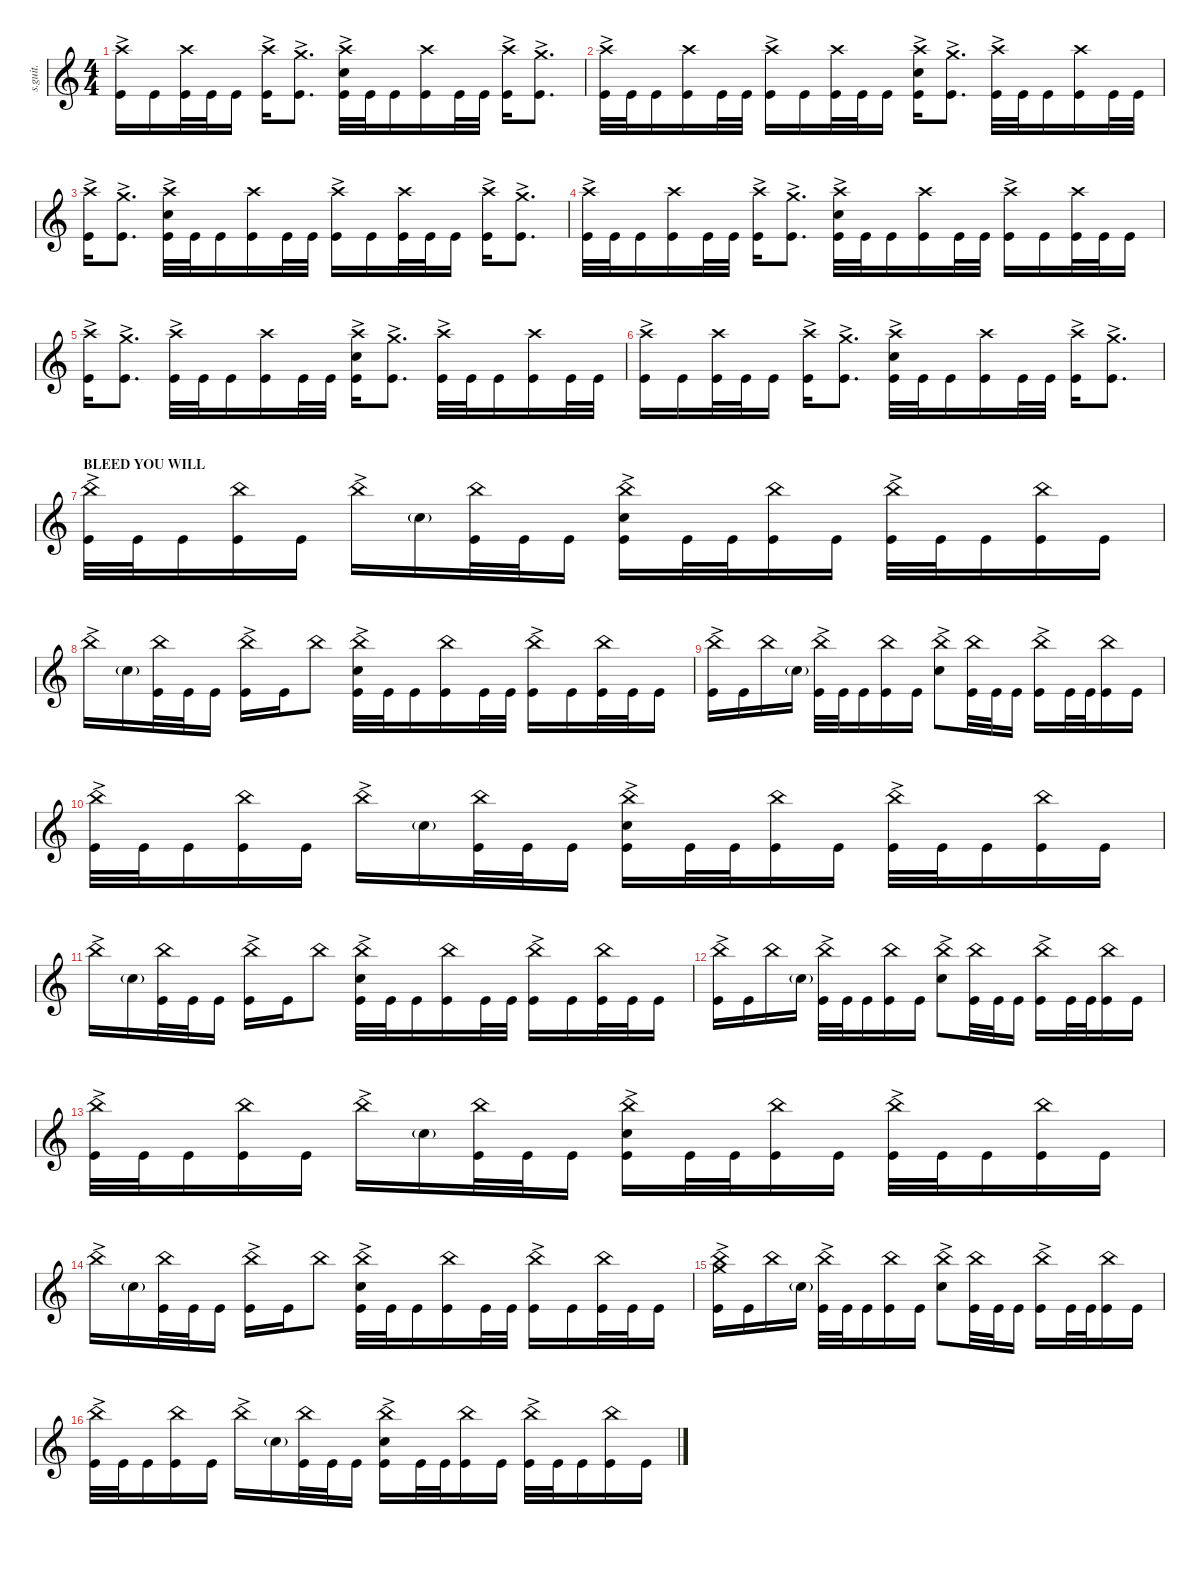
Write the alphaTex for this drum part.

\defaultSystemsLayout 4
\hideDynamics
\bracketExtendMode nobrackets
\track ("Tomas Haake (Drums)" "s.guit.") {instrument percussion}
\staff {score}
\articulation defaults
\ts (4 4)
\tempo (115 hide)
\clef g2
\ks c
("Crash high (hit)"{ac} "Kick (hit)").16{lyrics (0 "") lyrics (1 "") lyrics (2 "") lyrics (3 "") lyrics (4 "") dy f} "Kick (hit)".16{lyrics (0 "") lyrics (1 "") lyrics (2 "") lyrics (3 "") lyrics (4 "")} ("Crash high (hit)" "Kick (hit)").32{lyrics (0 "") lyrics (1 "") lyrics (2 "") lyrics (3 "") lyrics (4 "") dy mp} "Kick (hit)".32{lyrics (0 "") lyrics (1 "") lyrics (2 "") lyrics (3 "") lyrics (4 "") dy mf} "Kick (hit)".16{lyrics (0 "") lyrics (1 "") lyrics (2 "") lyrics (3 "") lyrics (4 "") dy f} ("Crash high (hit)"{ac} "Kick (hit)").16{lyrics (0 "") lyrics (1 "") lyrics (2 "") lyrics (3 "") lyrics (4 "")} ("Crash medium (hit)"{ac} "Kick (hit)").8{d lyrics (0 "") lyrics (1 "") lyrics (2 "") lyrics (3 "") lyrics (4 "")} ("Crash high (hit)"{ac} "Snare (hit) 2" "Kick (hit)").32{lyrics (0 "") lyrics (1 "") lyrics (2 "") lyrics (3 "") lyrics (4 "")} "Kick (hit)".32{lyrics (0 "") lyrics (1 "") lyrics (2 "") lyrics (3 "") lyrics (4 "") dy mf} "Kick (hit)".16{lyrics (0 "") lyrics (1 "") lyrics (2 "") lyrics (3 "") lyrics (4 "") dy f} ("Crash high (hit)" "Kick (hit)").16{lyrics (0 "") lyrics (1 "") lyrics (2 "") lyrics (3 "") lyrics (4 "") dy mp} "Kick (hit)".32{lyrics (0 "") lyrics (1 "") lyrics (2 "") lyrics (3 "") lyrics (4 "") dy f} "Kick (hit)".32{lyrics (0 "") lyrics (1 "") lyrics (2 "") lyrics (3 "") lyrics (4 "") dy mf} ("Crash high (hit)"{ac} "Kick (hit)").16{lyrics (0 "") lyrics (1 "") lyrics (2 "") lyrics (3 "") lyrics (4 "") dy f} ("Crash medium (hit)"{ac} "Kick (hit)").8{d lyrics (0 "") lyrics (1 "") lyrics (2 "") lyrics (3 "") lyrics (4 "")} |
("Crash high (hit)"{ac} "Kick (hit)").32{lyrics (0 "") lyrics (1 "") lyrics (2 "") lyrics (3 "") lyrics (4 "")} "Kick (hit)".32{lyrics (0 "") lyrics (1 "") lyrics (2 "") lyrics (3 "") lyrics (4 "") dy mf} "Kick (hit)".16{lyrics (0 "") lyrics (1 "") lyrics (2 "") lyrics (3 "") lyrics (4 "") dy f} ("Crash high (hit)" "Kick (hit)").16{lyrics (0 "") lyrics (1 "") lyrics (2 "") lyrics (3 "") lyrics (4 "") dy mp} "Kick (hit)".32{lyrics (0 "") lyrics (1 "") lyrics (2 "") lyrics (3 "") lyrics (4 "") dy f} "Kick (hit)".32{lyrics (0 "") lyrics (1 "") lyrics (2 "") lyrics (3 "") lyrics (4 "") dy mf} ("Crash high (hit)"{ac} "Kick (hit)").16{lyrics (0 "") lyrics (1 "") lyrics (2 "") lyrics (3 "") lyrics (4 "") dy f} "Kick (hit)".16{lyrics (0 "") lyrics (1 "") lyrics (2 "") lyrics (3 "") lyrics (4 "")} ("Crash high (hit)" "Kick (hit)").32{lyrics (0 "") lyrics (1 "") lyrics (2 "") lyrics (3 "") lyrics (4 "") dy mp} "Kick (hit)".32{lyrics (0 "") lyrics (1 "") lyrics (2 "") lyrics (3 "") lyrics (4 "") dy mf} "Kick (hit)".16{lyrics (0 "") lyrics (1 "") lyrics (2 "") lyrics (3 "") lyrics (4 "") dy f} ("Crash high (hit)"{ac} "Snare (hit) 2" "Kick (hit)").16{lyrics (0 "") lyrics (1 "") lyrics (2 "") lyrics (3 "") lyrics (4 "")} ("Crash medium (hit)"{ac} "Kick (hit)").8{d lyrics (0 "") lyrics (1 "") lyrics (2 "") lyrics (3 "") lyrics (4 "")} ("Crash high (hit)"{ac} "Kick (hit)").32{lyrics (0 "") lyrics (1 "") lyrics (2 "") lyrics (3 "") lyrics (4 "")} "Kick (hit)".32{lyrics (0 "") lyrics (1 "") lyrics (2 "") lyrics (3 "") lyrics (4 "") dy mf} "Kick (hit)".16{lyrics (0 "") lyrics (1 "") lyrics (2 "") lyrics (3 "") lyrics (4 "") dy f} ("Crash high (hit)" "Kick (hit)").16{lyrics (0 "") lyrics (1 "") lyrics (2 "") lyrics (3 "") lyrics (4 "") dy mp} "Kick (hit)".32{lyrics (0 "") lyrics (1 "") lyrics (2 "") lyrics (3 "") lyrics (4 "") dy f} "Kick (hit)".32{lyrics (0 "") lyrics (1 "") lyrics (2 "") lyrics (3 "") lyrics (4 "") dy mf} |
("Crash high (hit)"{ac} "Kick (hit)").16{lyrics (0 "") lyrics (1 "") lyrics (2 "") lyrics (3 "") lyrics (4 "") dy f} ("Crash medium (hit)"{ac} "Kick (hit)").8{d lyrics (0 "") lyrics (1 "") lyrics (2 "") lyrics (3 "") lyrics (4 "")} ("Crash high (hit)"{ac} "Snare (hit) 2" "Kick (hit)").32{lyrics (0 "") lyrics (1 "") lyrics (2 "") lyrics (3 "") lyrics (4 "")} "Kick (hit)".32{lyrics (0 "") lyrics (1 "") lyrics (2 "") lyrics (3 "") lyrics (4 "") dy mf} "Kick (hit)".16{lyrics (0 "") lyrics (1 "") lyrics (2 "") lyrics (3 "") lyrics (4 "") dy f} ("Crash high (hit)" "Kick (hit)").16{lyrics (0 "") lyrics (1 "") lyrics (2 "") lyrics (3 "") lyrics (4 "") dy mp} "Kick (hit)".32{lyrics (0 "") lyrics (1 "") lyrics (2 "") lyrics (3 "") lyrics (4 "") dy f} "Kick (hit)".32{lyrics (0 "") lyrics (1 "") lyrics (2 "") lyrics (3 "") lyrics (4 "") dy mf} ("Crash high (hit)"{ac} "Kick (hit)").16{lyrics (0 "") lyrics (1 "") lyrics (2 "") lyrics (3 "") lyrics (4 "") dy f} "Kick (hit)".16{lyrics (0 "") lyrics (1 "") lyrics (2 "") lyrics (3 "") lyrics (4 "")} ("Crash high (hit)" "Kick (hit)").32{lyrics (0 "") lyrics (1 "") lyrics (2 "") lyrics (3 "") lyrics (4 "") dy mp} "Kick (hit)".32{lyrics (0 "") lyrics (1 "") lyrics (2 "") lyrics (3 "") lyrics (4 "") dy mf} "Kick (hit)".16{lyrics (0 "") lyrics (1 "") lyrics (2 "") lyrics (3 "") lyrics (4 "") dy f} ("Crash high (hit)"{ac} "Kick (hit)").16{lyrics (0 "") lyrics (1 "") lyrics (2 "") lyrics (3 "") lyrics (4 "")} ("Crash medium (hit)"{ac} "Kick (hit)").8{d lyrics (0 "") lyrics (1 "") lyrics (2 "") lyrics (3 "") lyrics (4 "")} |
("Crash high (hit)"{ac} "Kick (hit)").32{lyrics (0 "") lyrics (1 "") lyrics (2 "") lyrics (3 "") lyrics (4 "")} "Kick (hit)".32{lyrics (0 "") lyrics (1 "") lyrics (2 "") lyrics (3 "") lyrics (4 "") dy mf} "Kick (hit)".16{lyrics (0 "") lyrics (1 "") lyrics (2 "") lyrics (3 "") lyrics (4 "") dy f} ("Crash high (hit)" "Kick (hit)").16{lyrics (0 "") lyrics (1 "") lyrics (2 "") lyrics (3 "") lyrics (4 "") dy mp} "Kick (hit)".32{lyrics (0 "") lyrics (1 "") lyrics (2 "") lyrics (3 "") lyrics (4 "") dy f} "Kick (hit)".32{lyrics (0 "") lyrics (1 "") lyrics (2 "") lyrics (3 "") lyrics (4 "") dy mf} ("Crash high (hit)"{ac} "Kick (hit)").16{lyrics (0 "") lyrics (1 "") lyrics (2 "") lyrics (3 "") lyrics (4 "") dy f} ("Crash medium (hit)"{ac} "Kick (hit)").8{d lyrics (0 "") lyrics (1 "") lyrics (2 "") lyrics (3 "") lyrics (4 "")} ("Crash high (hit)"{ac} "Snare (hit) 2" "Kick (hit)").32{lyrics (0 "") lyrics (1 "") lyrics (2 "") lyrics (3 "") lyrics (4 "")} "Kick (hit)".32{lyrics (0 "") lyrics (1 "") lyrics (2 "") lyrics (3 "") lyrics (4 "") dy mf} "Kick (hit)".16{lyrics (0 "") lyrics (1 "") lyrics (2 "") lyrics (3 "") lyrics (4 "") dy f} ("Crash high (hit)" "Kick (hit)").16{lyrics (0 "") lyrics (1 "") lyrics (2 "") lyrics (3 "") lyrics (4 "") dy mp} "Kick (hit)".32{lyrics (0 "") lyrics (1 "") lyrics (2 "") lyrics (3 "") lyrics (4 "") dy f} "Kick (hit)".32{lyrics (0 "") lyrics (1 "") lyrics (2 "") lyrics (3 "") lyrics (4 "") dy mf} ("Crash high (hit)"{ac} "Kick (hit)").16{lyrics (0 "") lyrics (1 "") lyrics (2 "") lyrics (3 "") lyrics (4 "") dy f} "Kick (hit)".16{lyrics (0 "") lyrics (1 "") lyrics (2 "") lyrics (3 "") lyrics (4 "")} ("Crash high (hit)" "Kick (hit)").32{lyrics (0 "") lyrics (1 "") lyrics (2 "") lyrics (3 "") lyrics (4 "") dy mp} "Kick (hit)".32{lyrics (0 "") lyrics (1 "") lyrics (2 "") lyrics (3 "") lyrics (4 "") dy mf} "Kick (hit)".16{lyrics (0 "") lyrics (1 "") lyrics (2 "") lyrics (3 "") lyrics (4 "") dy f} |
("Crash high (hit)"{ac} "Kick (hit)").16{lyrics (0 "") lyrics (1 "") lyrics (2 "") lyrics (3 "") lyrics (4 "")} ("Crash medium (hit)"{ac} "Kick (hit)").8{d lyrics (0 "") lyrics (1 "") lyrics (2 "") lyrics (3 "") lyrics (4 "")} ("Crash high (hit)"{ac} "Kick (hit)").32{lyrics (0 "") lyrics (1 "") lyrics (2 "") lyrics (3 "") lyrics (4 "")} "Kick (hit)".32{lyrics (0 "") lyrics (1 "") lyrics (2 "") lyrics (3 "") lyrics (4 "") dy mf} "Kick (hit)".16{lyrics (0 "") lyrics (1 "") lyrics (2 "") lyrics (3 "") lyrics (4 "") dy f} ("Crash high (hit)" "Kick (hit)").16{lyrics (0 "") lyrics (1 "") lyrics (2 "") lyrics (3 "") lyrics (4 "") dy mp} "Kick (hit)".32{lyrics (0 "") lyrics (1 "") lyrics (2 "") lyrics (3 "") lyrics (4 "") dy f} "Kick (hit)".32{lyrics (0 "") lyrics (1 "") lyrics (2 "") lyrics (3 "") lyrics (4 "") dy mf} ("Crash high (hit)"{ac} "Snare (hit) 2" "Kick (hit)").16{lyrics (0 "") lyrics (1 "") lyrics (2 "") lyrics (3 "") lyrics (4 "") dy f} ("Crash medium (hit)"{ac} "Kick (hit)").8{d lyrics (0 "") lyrics (1 "") lyrics (2 "") lyrics (3 "") lyrics (4 "")} ("Crash high (hit)"{ac} "Kick (hit)").32{lyrics (0 "") lyrics (1 "") lyrics (2 "") lyrics (3 "") lyrics (4 "")} "Kick (hit)".32{lyrics (0 "") lyrics (1 "") lyrics (2 "") lyrics (3 "") lyrics (4 "") dy mf} "Kick (hit)".16{lyrics (0 "") lyrics (1 "") lyrics (2 "") lyrics (3 "") lyrics (4 "") dy f} ("Crash high (hit)" "Kick (hit)").16{lyrics (0 "") lyrics (1 "") lyrics (2 "") lyrics (3 "") lyrics (4 "") dy mp} "Kick (hit)".32{lyrics (0 "") lyrics (1 "") lyrics (2 "") lyrics (3 "") lyrics (4 "") dy f} "Kick (hit)".32{lyrics (0 "") lyrics (1 "") lyrics (2 "") lyrics (3 "") lyrics (4 "")} |
("Crash high (hit)"{ac} "Kick (hit)").16{lyrics (0 "") lyrics (1 "") lyrics (2 "") lyrics (3 "") lyrics (4 "")} "Kick (hit)".16{lyrics (0 "") lyrics (1 "") lyrics (2 "") lyrics (3 "") lyrics (4 "")} ("Crash high (hit)" "Kick (hit)").32{lyrics (0 "") lyrics (1 "") lyrics (2 "") lyrics (3 "") lyrics (4 "") dy mp} "Kick (hit)".32{lyrics (0 "") lyrics (1 "") lyrics (2 "") lyrics (3 "") lyrics (4 "") dy mf} "Kick (hit)".16{lyrics (0 "") lyrics (1 "") lyrics (2 "") lyrics (3 "") lyrics (4 "") dy f} ("Crash high (hit)"{ac} "Kick (hit)").16{lyrics (0 "") lyrics (1 "") lyrics (2 "") lyrics (3 "") lyrics (4 "")} ("Crash medium (hit)"{ac} "Kick (hit)").8{d lyrics (0 "") lyrics (1 "") lyrics (2 "") lyrics (3 "") lyrics (4 "")} ("Crash high (hit)"{ac} "Snare (hit) 2" "Kick (hit)").32{lyrics (0 "") lyrics (1 "") lyrics (2 "") lyrics (3 "") lyrics (4 "")} "Kick (hit)".32{lyrics (0 "") lyrics (1 "") lyrics (2 "") lyrics (3 "") lyrics (4 "") dy mf} "Kick (hit)".16{lyrics (0 "") lyrics (1 "") lyrics (2 "") lyrics (3 "") lyrics (4 "") dy f} ("Crash high (hit)" "Kick (hit)").16{lyrics (0 "") lyrics (1 "") lyrics (2 "") lyrics (3 "") lyrics (4 "") dy mp} "Kick (hit)".32{lyrics (0 "") lyrics (1 "") lyrics (2 "") lyrics (3 "") lyrics (4 "") dy f} "Kick (hit)".32{lyrics (0 "") lyrics (1 "") lyrics (2 "") lyrics (3 "") lyrics (4 "") dy mf} ("Crash high (hit)"{ac} "Kick (hit)").16{lyrics (0 "") lyrics (1 "") lyrics (2 "") lyrics (3 "") lyrics (4 "") dy f} ("Crash medium (hit)"{ac} "Kick (hit)").8{d lyrics (0 "") lyrics (1 "") lyrics (2 "") lyrics (3 "") lyrics (4 "")} |
\section ("" "BLEED YOU WILL")
("China (hit)"{ac} "Kick (hit)").32{lyrics (0 "") lyrics (1 "") lyrics (2 "") lyrics (3 "") lyrics (4 "")} "Kick (hit)".32{lyrics (0 "") lyrics (1 "") lyrics (2 "") lyrics (3 "") lyrics (4 "") dy mf} "Kick (hit)".16{lyrics (0 "") lyrics (1 "") lyrics (2 "") lyrics (3 "") lyrics (4 "") dy f} ("China (hit)" "Kick (hit)").16{lyrics (0 "") lyrics (1 "") lyrics (2 "") lyrics (3 "") lyrics (4 "") dy p} "Kick (hit)".16{lyrics (0 "") lyrics (1 "") lyrics (2 "") lyrics (3 "") lyrics (4 "") dy f} "China (hit)"{ac}.16{lyrics (0 "") lyrics (1 "") lyrics (2 "") lyrics (3 "") lyrics (4 "") dy ppp} "Snare (hit) 2"{g}.16{lyrics (0 "") lyrics (1 "") lyrics (2 "") lyrics (3 "") lyrics (4 "") dy f} ("China (hit)" "Kick (hit)").32{lyrics (0 "") lyrics (1 "") lyrics (2 "") lyrics (3 "") lyrics (4 "") dy p} "Kick (hit)".32{lyrics (0 "") lyrics (1 "") lyrics (2 "") lyrics (3 "") lyrics (4 "") dy mf} "Kick (hit)".16{lyrics (0 "") lyrics (1 "") lyrics (2 "") lyrics (3 "") lyrics (4 "") dy f} ("China (hit)"{ac} "Snare (hit) 2" "Kick (hit)").16{lyrics (0 "") lyrics (1 "") lyrics (2 "") lyrics (3 "") lyrics (4 "")} "Kick (hit)".32{lyrics (0 "") lyrics (1 "") lyrics (2 "") lyrics (3 "") lyrics (4 "")} "Kick (hit)".32{lyrics (0 "") lyrics (1 "") lyrics (2 "") lyrics (3 "") lyrics (4 "") dy mf} ("China (hit)" "Kick (hit)").16{lyrics (0 "") lyrics (1 "") lyrics (2 "") lyrics (3 "") lyrics (4 "") dy p} "Kick (hit)".16{lyrics (0 "") lyrics (1 "") lyrics (2 "") lyrics (3 "") lyrics (4 "") dy f} ("China (hit)"{ac} "Kick (hit)").32{lyrics (0 "") lyrics (1 "") lyrics (2 "") lyrics (3 "") lyrics (4 "")} "Kick (hit)".32{lyrics (0 "") lyrics (1 "") lyrics (2 "") lyrics (3 "") lyrics (4 "") dy mf} "Kick (hit)".16{lyrics (0 "") lyrics (1 "") lyrics (2 "") lyrics (3 "") lyrics (4 "") dy f} ("China (hit)" "Kick (hit)").16{lyrics (0 "") lyrics (1 "") lyrics (2 "") lyrics (3 "") lyrics (4 "") dy p} "Kick (hit)".16{lyrics (0 "") lyrics (1 "") lyrics (2 "") lyrics (3 "") lyrics (4 "") dy f} |
"China (hit)"{ac}.16{lyrics (0 "") lyrics (1 "") lyrics (2 "") lyrics (3 "") lyrics (4 "") dy ppp} "Snare (hit) 2"{g}.16{lyrics (0 "") lyrics (1 "") lyrics (2 "") lyrics (3 "") lyrics (4 "") dy f} ("China (hit)" "Kick (hit)").32{lyrics (0 "") lyrics (1 "") lyrics (2 "") lyrics (3 "") lyrics (4 "") dy p} "Kick (hit)".32{lyrics (0 "") lyrics (1 "") lyrics (2 "") lyrics (3 "") lyrics (4 "") dy mf} "Kick (hit)".16{lyrics (0 "") lyrics (1 "") lyrics (2 "") lyrics (3 "") lyrics (4 "") dy f} ("China (hit)"{ac} "Kick (hit)").16{lyrics (0 "") lyrics (1 "") lyrics (2 "") lyrics (3 "") lyrics (4 "")} "Kick (hit)".16{lyrics (0 "") lyrics (1 "") lyrics (2 "") lyrics (3 "") lyrics (4 "")} "China (hit)".8{lyrics (0 "") lyrics (1 "") lyrics (2 "") lyrics (3 "") lyrics (4 "") dy p} ("China (hit)"{ac} "Snare (hit) 2" "Kick (hit)").32{lyrics (0 "") lyrics (1 "") lyrics (2 "") lyrics (3 "") lyrics (4 "") dy f} "Kick (hit)".32{lyrics (0 "") lyrics (1 "") lyrics (2 "") lyrics (3 "") lyrics (4 "") dy mf} "Kick (hit)".16{lyrics (0 "") lyrics (1 "") lyrics (2 "") lyrics (3 "") lyrics (4 "") dy f} ("China (hit)" "Kick (hit)").16{lyrics (0 "") lyrics (1 "") lyrics (2 "") lyrics (3 "") lyrics (4 "") dy p} "Kick (hit)".32{lyrics (0 "") lyrics (1 "") lyrics (2 "") lyrics (3 "") lyrics (4 "") dy f} "Kick (hit)".32{lyrics (0 "") lyrics (1 "") lyrics (2 "") lyrics (3 "") lyrics (4 "") dy mf} ("China (hit)"{ac} "Kick (hit)").16{lyrics (0 "") lyrics (1 "") lyrics (2 "") lyrics (3 "") lyrics (4 "") dy f} "Kick (hit)".16{lyrics (0 "") lyrics (1 "") lyrics (2 "") lyrics (3 "") lyrics (4 "")} ("China (hit)" "Kick (hit)").32{lyrics (0 "") lyrics (1 "") lyrics (2 "") lyrics (3 "") lyrics (4 "") dy p} "Kick (hit)".32{lyrics (0 "") lyrics (1 "") lyrics (2 "") lyrics (3 "") lyrics (4 "") dy mf} "Kick (hit)".16{lyrics (0 "") lyrics (1 "") lyrics (2 "") lyrics (3 "") lyrics (4 "") dy f} |
("China (hit)"{ac} "Kick (hit)").16{lyrics (0 "") lyrics (1 "") lyrics (2 "") lyrics (3 "") lyrics (4 "")} "Kick (hit)".16{lyrics (0 "") lyrics (1 "") lyrics (2 "") lyrics (3 "") lyrics (4 "")} "China (hit)".16{lyrics (0 "") lyrics (1 "") lyrics (2 "") lyrics (3 "") lyrics (4 "") dy p} "Snare (hit) 2"{g}.16{lyrics (0 "") lyrics (1 "") lyrics (2 "") lyrics (3 "") lyrics (4 "") dy f} ("China (hit)"{ac} "Kick (hit)").32{lyrics (0 "") lyrics (1 "") lyrics (2 "") lyrics (3 "") lyrics (4 "")} "Kick (hit)".32{lyrics (0 "") lyrics (1 "") lyrics (2 "") lyrics (3 "") lyrics (4 "") dy mf} "Kick (hit)".16{lyrics (0 "") lyrics (1 "") lyrics (2 "") lyrics (3 "") lyrics (4 "") dy f} ("China (hit)" "Kick (hit)").16{lyrics (0 "") lyrics (1 "") lyrics (2 "") lyrics (3 "") lyrics (4 "") dy p} "Kick (hit)".16{lyrics (0 "") lyrics (1 "") lyrics (2 "") lyrics (3 "") lyrics (4 "") dy f} ("China (hit)"{ac} "Snare (hit) 2").8{lyrics (0 "") lyrics (1 "") lyrics (2 "") lyrics (3 "") lyrics (4 "")} ("China (hit)" "Kick (hit)").32{lyrics (0 "") lyrics (1 "") lyrics (2 "") lyrics (3 "") lyrics (4 "") dy p} "Kick (hit)".32{lyrics (0 "") lyrics (1 "") lyrics (2 "") lyrics (3 "") lyrics (4 "") dy mf} "Kick (hit)".16{lyrics (0 "") lyrics (1 "") lyrics (2 "") lyrics (3 "") lyrics (4 "") dy f} ("China (hit)"{ac} "Kick (hit)").16{lyrics (0 "") lyrics (1 "") lyrics (2 "") lyrics (3 "") lyrics (4 "")} "Kick (hit)".32{lyrics (0 "") lyrics (1 "") lyrics (2 "") lyrics (3 "") lyrics (4 "")} "Kick (hit)".32{lyrics (0 "") lyrics (1 "") lyrics (2 "") lyrics (3 "") lyrics (4 "") dy mf} ("China (hit)" "Kick (hit)").16{lyrics (0 "") lyrics (1 "") lyrics (2 "") lyrics (3 "") lyrics (4 "") dy p} "Kick (hit)".16{lyrics (0 "") lyrics (1 "") lyrics (2 "") lyrics (3 "") lyrics (4 "") dy f} |
("China (hit)"{ac} "Kick (hit)").32{lyrics (0 "") lyrics (1 "") lyrics (2 "") lyrics (3 "") lyrics (4 "")} "Kick (hit)".32{lyrics (0 "") lyrics (1 "") lyrics (2 "") lyrics (3 "") lyrics (4 "") dy mf} "Kick (hit)".16{lyrics (0 "") lyrics (1 "") lyrics (2 "") lyrics (3 "") lyrics (4 "") dy f} ("China (hit)" "Kick (hit)").16{lyrics (0 "") lyrics (1 "") lyrics (2 "") lyrics (3 "") lyrics (4 "") dy p} "Kick (hit)".16{lyrics (0 "") lyrics (1 "") lyrics (2 "") lyrics (3 "") lyrics (4 "") dy f} "China (hit)"{ac}.16{lyrics (0 "") lyrics (1 "") lyrics (2 "") lyrics (3 "") lyrics (4 "") dy ppp} "Snare (hit) 2"{g}.16{lyrics (0 "") lyrics (1 "") lyrics (2 "") lyrics (3 "") lyrics (4 "") dy f} ("China (hit)" "Kick (hit)").32{lyrics (0 "") lyrics (1 "") lyrics (2 "") lyrics (3 "") lyrics (4 "") dy p} "Kick (hit)".32{lyrics (0 "") lyrics (1 "") lyrics (2 "") lyrics (3 "") lyrics (4 "") dy mf} "Kick (hit)".16{lyrics (0 "") lyrics (1 "") lyrics (2 "") lyrics (3 "") lyrics (4 "") dy f} ("China (hit)"{ac} "Snare (hit) 2" "Kick (hit)").16{lyrics (0 "") lyrics (1 "") lyrics (2 "") lyrics (3 "") lyrics (4 "")} "Kick (hit)".32{lyrics (0 "") lyrics (1 "") lyrics (2 "") lyrics (3 "") lyrics (4 "")} "Kick (hit)".32{lyrics (0 "") lyrics (1 "") lyrics (2 "") lyrics (3 "") lyrics (4 "") dy mf} ("China (hit)" "Kick (hit)").16{lyrics (0 "") lyrics (1 "") lyrics (2 "") lyrics (3 "") lyrics (4 "") dy p} "Kick (hit)".16{lyrics (0 "") lyrics (1 "") lyrics (2 "") lyrics (3 "") lyrics (4 "") dy f} ("China (hit)"{ac} "Kick (hit)").32{lyrics (0 "") lyrics (1 "") lyrics (2 "") lyrics (3 "") lyrics (4 "")} "Kick (hit)".32{lyrics (0 "") lyrics (1 "") lyrics (2 "") lyrics (3 "") lyrics (4 "") dy mf} "Kick (hit)".16{lyrics (0 "") lyrics (1 "") lyrics (2 "") lyrics (3 "") lyrics (4 "") dy f} ("China (hit)" "Kick (hit)").16{lyrics (0 "") lyrics (1 "") lyrics (2 "") lyrics (3 "") lyrics (4 "") dy p} "Kick (hit)".16{lyrics (0 "") lyrics (1 "") lyrics (2 "") lyrics (3 "") lyrics (4 "") dy f} |
"China (hit)"{ac}.16{lyrics (0 "") lyrics (1 "") lyrics (2 "") lyrics (3 "") lyrics (4 "") dy ppp} "Snare (hit) 2"{g}.16{lyrics (0 "") lyrics (1 "") lyrics (2 "") lyrics (3 "") lyrics (4 "") dy f} ("China (hit)" "Kick (hit)").32{lyrics (0 "") lyrics (1 "") lyrics (2 "") lyrics (3 "") lyrics (4 "") dy p} "Kick (hit)".32{lyrics (0 "") lyrics (1 "") lyrics (2 "") lyrics (3 "") lyrics (4 "") dy mf} "Kick (hit)".16{lyrics (0 "") lyrics (1 "") lyrics (2 "") lyrics (3 "") lyrics (4 "") dy f} ("China (hit)"{ac} "Kick (hit)").16{lyrics (0 "") lyrics (1 "") lyrics (2 "") lyrics (3 "") lyrics (4 "")} "Kick (hit)".16{lyrics (0 "") lyrics (1 "") lyrics (2 "") lyrics (3 "") lyrics (4 "")} "China (hit)".8{lyrics (0 "") lyrics (1 "") lyrics (2 "") lyrics (3 "") lyrics (4 "") dy p} ("China (hit)"{ac} "Snare (hit) 2" "Kick (hit)").32{lyrics (0 "") lyrics (1 "") lyrics (2 "") lyrics (3 "") lyrics (4 "") dy f} "Kick (hit)".32{lyrics (0 "") lyrics (1 "") lyrics (2 "") lyrics (3 "") lyrics (4 "") dy mf} "Kick (hit)".16{lyrics (0 "") lyrics (1 "") lyrics (2 "") lyrics (3 "") lyrics (4 "") dy f} ("China (hit)" "Kick (hit)").16{lyrics (0 "") lyrics (1 "") lyrics (2 "") lyrics (3 "") lyrics (4 "") dy p} "Kick (hit)".32{lyrics (0 "") lyrics (1 "") lyrics (2 "") lyrics (3 "") lyrics (4 "") dy f} "Kick (hit)".32{lyrics (0 "") lyrics (1 "") lyrics (2 "") lyrics (3 "") lyrics (4 "") dy mf} ("China (hit)"{ac} "Kick (hit)").16{lyrics (0 "") lyrics (1 "") lyrics (2 "") lyrics (3 "") lyrics (4 "") dy f} "Kick (hit)".16{lyrics (0 "") lyrics (1 "") lyrics (2 "") lyrics (3 "") lyrics (4 "")} ("China (hit)" "Kick (hit)").32{lyrics (0 "") lyrics (1 "") lyrics (2 "") lyrics (3 "") lyrics (4 "") dy p} "Kick (hit)".32{lyrics (0 "") lyrics (1 "") lyrics (2 "") lyrics (3 "") lyrics (4 "") dy mf} "Kick (hit)".16{lyrics (0 "") lyrics (1 "") lyrics (2 "") lyrics (3 "") lyrics (4 "") dy f} |
("China (hit)"{ac} "Kick (hit)").16{lyrics (0 "") lyrics (1 "") lyrics (2 "") lyrics (3 "") lyrics (4 "")} "Kick (hit)".16{lyrics (0 "") lyrics (1 "") lyrics (2 "") lyrics (3 "") lyrics (4 "")} "China (hit)".16{lyrics (0 "") lyrics (1 "") lyrics (2 "") lyrics (3 "") lyrics (4 "") dy p} "Snare (hit) 2"{g}.16{lyrics (0 "") lyrics (1 "") lyrics (2 "") lyrics (3 "") lyrics (4 "") dy f} ("China (hit)"{ac} "Kick (hit)").32{lyrics (0 "") lyrics (1 "") lyrics (2 "") lyrics (3 "") lyrics (4 "")} "Kick (hit)".32{lyrics (0 "") lyrics (1 "") lyrics (2 "") lyrics (3 "") lyrics (4 "") dy mf} "Kick (hit)".16{lyrics (0 "") lyrics (1 "") lyrics (2 "") lyrics (3 "") lyrics (4 "") dy f} ("China (hit)" "Kick (hit)").16{lyrics (0 "") lyrics (1 "") lyrics (2 "") lyrics (3 "") lyrics (4 "") dy p} "Kick (hit)".16{lyrics (0 "") lyrics (1 "") lyrics (2 "") lyrics (3 "") lyrics (4 "") dy f} ("China (hit)"{ac} "Snare (hit) 2").8{lyrics (0 "") lyrics (1 "") lyrics (2 "") lyrics (3 "") lyrics (4 "")} ("China (hit)" "Kick (hit)").32{lyrics (0 "") lyrics (1 "") lyrics (2 "") lyrics (3 "") lyrics (4 "") dy p} "Kick (hit)".32{lyrics (0 "") lyrics (1 "") lyrics (2 "") lyrics (3 "") lyrics (4 "") dy mf} "Kick (hit)".16{lyrics (0 "") lyrics (1 "") lyrics (2 "") lyrics (3 "") lyrics (4 "") dy f} ("China (hit)"{ac} "Kick (hit)").16{lyrics (0 "") lyrics (1 "") lyrics (2 "") lyrics (3 "") lyrics (4 "")} "Kick (hit)".32{lyrics (0 "") lyrics (1 "") lyrics (2 "") lyrics (3 "") lyrics (4 "")} "Kick (hit)".32{lyrics (0 "") lyrics (1 "") lyrics (2 "") lyrics (3 "") lyrics (4 "") dy mf} ("China (hit)" "Kick (hit)").16{lyrics (0 "") lyrics (1 "") lyrics (2 "") lyrics (3 "") lyrics (4 "") dy p} "Kick (hit)".16{lyrics (0 "") lyrics (1 "") lyrics (2 "") lyrics (3 "") lyrics (4 "") dy f} |
("China (hit)"{ac} "Kick (hit)").32{lyrics (0 "") lyrics (1 "") lyrics (2 "") lyrics (3 "") lyrics (4 "")} "Kick (hit)".32{lyrics (0 "") lyrics (1 "") lyrics (2 "") lyrics (3 "") lyrics (4 "") dy mf} "Kick (hit)".16{lyrics (0 "") lyrics (1 "") lyrics (2 "") lyrics (3 "") lyrics (4 "") dy f} ("China (hit)" "Kick (hit)").16{lyrics (0 "") lyrics (1 "") lyrics (2 "") lyrics (3 "") lyrics (4 "") dy p} "Kick (hit)".16{lyrics (0 "") lyrics (1 "") lyrics (2 "") lyrics (3 "") lyrics (4 "") dy f} "China (hit)"{ac}.16{lyrics (0 "") lyrics (1 "") lyrics (2 "") lyrics (3 "") lyrics (4 "") dy ppp} "Snare (hit) 2"{g}.16{lyrics (0 "") lyrics (1 "") lyrics (2 "") lyrics (3 "") lyrics (4 "") dy f} ("China (hit)" "Kick (hit)").32{lyrics (0 "") lyrics (1 "") lyrics (2 "") lyrics (3 "") lyrics (4 "") dy p} "Kick (hit)".32{lyrics (0 "") lyrics (1 "") lyrics (2 "") lyrics (3 "") lyrics (4 "") dy mf} "Kick (hit)".16{lyrics (0 "") lyrics (1 "") lyrics (2 "") lyrics (3 "") lyrics (4 "") dy f} ("China (hit)"{ac} "Snare (hit) 2" "Kick (hit)").16{lyrics (0 "") lyrics (1 "") lyrics (2 "") lyrics (3 "") lyrics (4 "")} "Kick (hit)".32{lyrics (0 "") lyrics (1 "") lyrics (2 "") lyrics (3 "") lyrics (4 "")} "Kick (hit)".32{lyrics (0 "") lyrics (1 "") lyrics (2 "") lyrics (3 "") lyrics (4 "") dy mf} ("China (hit)" "Kick (hit)").16{lyrics (0 "") lyrics (1 "") lyrics (2 "") lyrics (3 "") lyrics (4 "") dy p} "Kick (hit)".16{lyrics (0 "") lyrics (1 "") lyrics (2 "") lyrics (3 "") lyrics (4 "") dy f} ("China (hit)"{ac} "Kick (hit)").32{lyrics (0 "") lyrics (1 "") lyrics (2 "") lyrics (3 "") lyrics (4 "")} "Kick (hit)".32{lyrics (0 "") lyrics (1 "") lyrics (2 "") lyrics (3 "") lyrics (4 "") dy mf} "Kick (hit)".16{lyrics (0 "") lyrics (1 "") lyrics (2 "") lyrics (3 "") lyrics (4 "") dy f} ("China (hit)" "Kick (hit)").16{lyrics (0 "") lyrics (1 "") lyrics (2 "") lyrics (3 "") lyrics (4 "") dy p} "Kick (hit)".16{lyrics (0 "") lyrics (1 "") lyrics (2 "") lyrics (3 "") lyrics (4 "") dy f} |
"China (hit)"{ac}.16{lyrics (0 "") lyrics (1 "") lyrics (2 "") lyrics (3 "") lyrics (4 "") dy ppp} "Snare (hit) 2"{g}.16{lyrics (0 "") lyrics (1 "") lyrics (2 "") lyrics (3 "") lyrics (4 "") dy f} ("China (hit)" "Kick (hit)").32{lyrics (0 "") lyrics (1 "") lyrics (2 "") lyrics (3 "") lyrics (4 "") dy p} "Kick (hit)".32{lyrics (0 "") lyrics (1 "") lyrics (2 "") lyrics (3 "") lyrics (4 "") dy mf} "Kick (hit)".16{lyrics (0 "") lyrics (1 "") lyrics (2 "") lyrics (3 "") lyrics (4 "") dy f} ("China (hit)"{ac} "Kick (hit)").16{lyrics (0 "") lyrics (1 "") lyrics (2 "") lyrics (3 "") lyrics (4 "")} "Kick (hit)".16{lyrics (0 "") lyrics (1 "") lyrics (2 "") lyrics (3 "") lyrics (4 "")} "China (hit)".8{lyrics (0 "") lyrics (1 "") lyrics (2 "") lyrics (3 "") lyrics (4 "") dy p} ("China (hit)"{ac} "Snare (hit) 2" "Kick (hit)").32{lyrics (0 "") lyrics (1 "") lyrics (2 "") lyrics (3 "") lyrics (4 "") dy f} "Kick (hit)".32{lyrics (0 "") lyrics (1 "") lyrics (2 "") lyrics (3 "") lyrics (4 "") dy mf} "Kick (hit)".16{lyrics (0 "") lyrics (1 "") lyrics (2 "") lyrics (3 "") lyrics (4 "") dy f} ("China (hit)" "Kick (hit)").16{lyrics (0 "") lyrics (1 "") lyrics (2 "") lyrics (3 "") lyrics (4 "") dy p} "Kick (hit)".32{lyrics (0 "") lyrics (1 "") lyrics (2 "") lyrics (3 "") lyrics (4 "") dy f} "Kick (hit)".32{lyrics (0 "") lyrics (1 "") lyrics (2 "") lyrics (3 "") lyrics (4 "") dy mf} ("China (hit)"{ac} "Kick (hit)").16{lyrics (0 "") lyrics (1 "") lyrics (2 "") lyrics (3 "") lyrics (4 "") dy f} "Kick (hit)".16{lyrics (0 "") lyrics (1 "") lyrics (2 "") lyrics (3 "") lyrics (4 "")} ("China (hit)" "Kick (hit)").32{lyrics (0 "") lyrics (1 "") lyrics (2 "") lyrics (3 "") lyrics (4 "") dy p} "Kick (hit)".32{lyrics (0 "") lyrics (1 "") lyrics (2 "") lyrics (3 "") lyrics (4 "") dy mf} "Kick (hit)".16{lyrics (0 "") lyrics (1 "") lyrics (2 "") lyrics (3 "") lyrics (4 "") dy f} |
("China (hit)"{ac} "Crash medium (hit)" "Kick (hit)").16{lyrics (0 "") lyrics (1 "") lyrics (2 "") lyrics (3 "") lyrics (4 "") dy mf} "Kick (hit)".16{lyrics (0 "") lyrics (1 "") lyrics (2 "") lyrics (3 "") lyrics (4 "") dy f} "China (hit)".16{lyrics (0 "") lyrics (1 "") lyrics (2 "") lyrics (3 "") lyrics (4 "") dy p} "Snare (hit) 2"{g}.16{lyrics (0 "") lyrics (1 "") lyrics (2 "") lyrics (3 "") lyrics (4 "") dy f} ("China (hit)"{ac} "Kick (hit)").32{lyrics (0 "") lyrics (1 "") lyrics (2 "") lyrics (3 "") lyrics (4 "")} "Kick (hit)".32{lyrics (0 "") lyrics (1 "") lyrics (2 "") lyrics (3 "") lyrics (4 "") dy mf} "Kick (hit)".16{lyrics (0 "") lyrics (1 "") lyrics (2 "") lyrics (3 "") lyrics (4 "") dy f} ("China (hit)" "Kick (hit)").16{lyrics (0 "") lyrics (1 "") lyrics (2 "") lyrics (3 "") lyrics (4 "") dy p} "Kick (hit)".16{lyrics (0 "") lyrics (1 "") lyrics (2 "") lyrics (3 "") lyrics (4 "") dy f} ("China (hit)"{ac} "Snare (hit) 2").8{lyrics (0 "") lyrics (1 "") lyrics (2 "") lyrics (3 "") lyrics (4 "")} ("China (hit)" "Kick (hit)").32{lyrics (0 "") lyrics (1 "") lyrics (2 "") lyrics (3 "") lyrics (4 "") dy p} "Kick (hit)".32{lyrics (0 "") lyrics (1 "") lyrics (2 "") lyrics (3 "") lyrics (4 "") dy mf} "Kick (hit)".16{lyrics (0 "") lyrics (1 "") lyrics (2 "") lyrics (3 "") lyrics (4 "") dy f} ("China (hit)"{ac} "Kick (hit)").16{lyrics (0 "") lyrics (1 "") lyrics (2 "") lyrics (3 "") lyrics (4 "")} "Kick (hit)".32{lyrics (0 "") lyrics (1 "") lyrics (2 "") lyrics (3 "") lyrics (4 "")} "Kick (hit)".32{lyrics (0 "") lyrics (1 "") lyrics (2 "") lyrics (3 "") lyrics (4 "") dy mf} ("China (hit)" "Kick (hit)").16{lyrics (0 "") lyrics (1 "") lyrics (2 "") lyrics (3 "") lyrics (4 "") dy p} "Kick (hit)".16{lyrics (0 "") lyrics (1 "") lyrics (2 "") lyrics (3 "") lyrics (4 "") dy f} |
("China (hit)"{ac} "Kick (hit)").32{lyrics (0 "") lyrics (1 "") lyrics (2 "") lyrics (3 "") lyrics (4 "")} "Kick (hit)".32{lyrics (0 "") lyrics (1 "") lyrics (2 "") lyrics (3 "") lyrics (4 "") dy mf} "Kick (hit)".16{lyrics (0 "") lyrics (1 "") lyrics (2 "") lyrics (3 "") lyrics (4 "") dy f} ("China (hit)" "Kick (hit)").16{lyrics (0 "") lyrics (1 "") lyrics (2 "") lyrics (3 "") lyrics (4 "") dy p} "Kick (hit)".16{lyrics (0 "") lyrics (1 "") lyrics (2 "") lyrics (3 "") lyrics (4 "") dy f} "China (hit)"{ac}.16{lyrics (0 "") lyrics (1 "") lyrics (2 "") lyrics (3 "") lyrics (4 "") dy ppp} "Snare (hit) 2"{g}.16{lyrics (0 "") lyrics (1 "") lyrics (2 "") lyrics (3 "") lyrics (4 "") dy f} ("China (hit)" "Kick (hit)").32{lyrics (0 "") lyrics (1 "") lyrics (2 "") lyrics (3 "") lyrics (4 "") dy p} "Kick (hit)".32{lyrics (0 "") lyrics (1 "") lyrics (2 "") lyrics (3 "") lyrics (4 "") dy mf} "Kick (hit)".16{lyrics (0 "") lyrics (1 "") lyrics (2 "") lyrics (3 "") lyrics (4 "") dy f} ("China (hit)"{ac} "Snare (hit) 2" "Kick (hit)").16{lyrics (0 "") lyrics (1 "") lyrics (2 "") lyrics (3 "") lyrics (4 "")} "Kick (hit)".32{lyrics (0 "") lyrics (1 "") lyrics (2 "") lyrics (3 "") lyrics (4 "")} "Kick (hit)".32{lyrics (0 "") lyrics (1 "") lyrics (2 "") lyrics (3 "") lyrics (4 "") dy mf} ("China (hit)" "Kick (hit)").16{lyrics (0 "") lyrics (1 "") lyrics (2 "") lyrics (3 "") lyrics (4 "") dy p} "Kick (hit)".16{lyrics (0 "") lyrics (1 "") lyrics (2 "") lyrics (3 "") lyrics (4 "") dy f} ("China (hit)"{ac} "Kick (hit)").32{lyrics (0 "") lyrics (1 "") lyrics (2 "") lyrics (3 "") lyrics (4 "")} "Kick (hit)".32{lyrics (0 "") lyrics (1 "") lyrics (2 "") lyrics (3 "") lyrics (4 "") dy mf} "Kick (hit)".16{lyrics (0 "") lyrics (1 "") lyrics (2 "") lyrics (3 "") lyrics (4 "") dy f} ("China (hit)" "Kick (hit)").16{lyrics (0 "") lyrics (1 "") lyrics (2 "") lyrics (3 "") lyrics (4 "") dy p} "Kick (hit)".16{lyrics (0 "") lyrics (1 "") lyrics (2 "") lyrics (3 "") lyrics (4 "") dy f}
